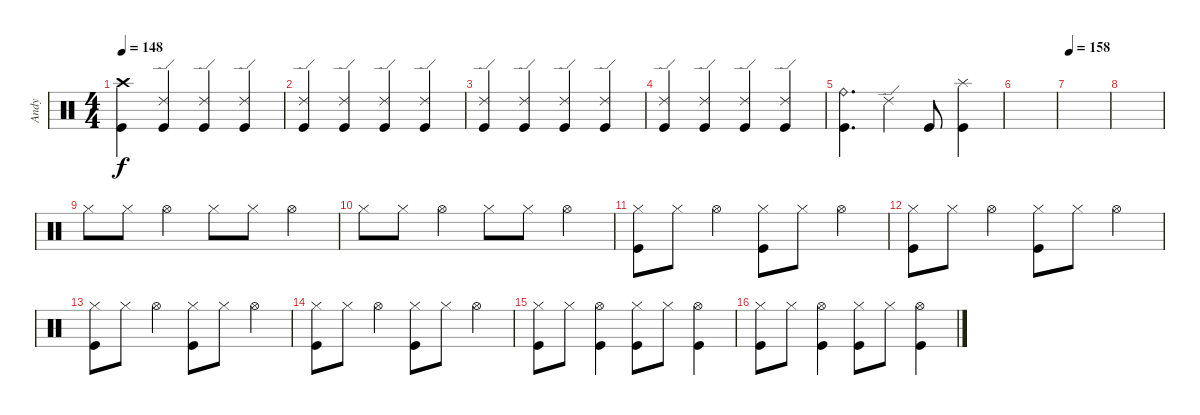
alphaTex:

\track ("Andy" "Andy") {instrument percussion}
\staff {score}
\articulation defaults
\ts (4 4)
\tempo 148
\clef neutral
\ks c
("Kick (hit)" "Crash high (hit)").4{dy f} ("Ride (edge) 2" "Kick (hit)").4 ("Ride (edge) 2" "Kick (hit)").4 ("Ride (edge) 2" "Kick (hit)").4 |
("Kick (hit)" "Ride (edge) 2").4 ("Ride (edge) 2" "Kick (hit)").4 ("Ride (edge) 2" "Kick (hit)").4 ("Ride (edge) 2" "Kick (hit)").4 |
("Kick (hit)" "Ride (edge) 2").4 ("Ride (edge) 2" "Kick (hit)").4 ("Ride (edge) 2" "Kick (hit)").4 ("Ride (edge) 2" "Kick (hit)").4 |
("Kick (hit)" "Ride (edge) 2").4 ("Ride (edge) 2" "Kick (hit)").4 ("Ride (edge) 2" "Kick (hit)").4 ("Ride (edge) 2" "Kick (hit)").4 |
("Ride (bell)" "Kick (hit)").4{d} "Ride (edge) 2".4 "Kick (hit)".8 ("Splash (hit)" "Kick (hit)").4 |
|
\tempo 158
|
|
"Hi-Hat (closed)".8 "Hi-Hat (closed)".8 "Hi-Hat (open)".4 "Hi-Hat (closed)".8 "Hi-Hat (closed)".8 "Hi-Hat (open)".4 |
"Hi-Hat (closed)".8 "Hi-Hat (closed)".8 "Hi-Hat (open)".4 "Hi-Hat (closed)".8 "Hi-Hat (closed)".8 "Hi-Hat (open)".4 |
("Hi-Hat (closed)" "Kick (hit)").8 "Hi-Hat (closed)".8 "Hi-Hat (open)".4 ("Hi-Hat (closed)" "Kick (hit)").8 "Hi-Hat (closed)".8 "Hi-Hat (open)".4 |
("Hi-Hat (closed)" "Kick (hit)").8 "Hi-Hat (closed)".8 "Hi-Hat (open)".4 ("Hi-Hat (closed)" "Kick (hit)").8 "Hi-Hat (closed)".8 "Hi-Hat (open)".4 |
("Hi-Hat (closed)" "Kick (hit)").8 "Hi-Hat (closed)".8 "Hi-Hat (open)".4 ("Hi-Hat (closed)" "Kick (hit)").8 "Hi-Hat (closed)".8 "Hi-Hat (open)".4 |
("Hi-Hat (closed)" "Kick (hit)").8 "Hi-Hat (closed)".8 "Hi-Hat (open)".4 ("Hi-Hat (closed)" "Kick (hit)").8 "Hi-Hat (closed)".8 "Hi-Hat (open)".4 |
("Hi-Hat (closed)" "Kick (hit)").8 "Hi-Hat (closed)".8 ("Hi-Hat (open)" "Kick (hit)").4 ("Hi-Hat (closed)" "Kick (hit)").8 "Hi-Hat (closed)".8 ("Hi-Hat (open)" "Kick (hit)").4 |
("Hi-Hat (closed)" "Kick (hit)").8 "Hi-Hat (closed)".8 ("Hi-Hat (open)" "Kick (hit)").4 ("Hi-Hat (closed)" "Kick (hit)").8 "Hi-Hat (closed)".8 ("Hi-Hat (open)" "Kick (hit)").4
